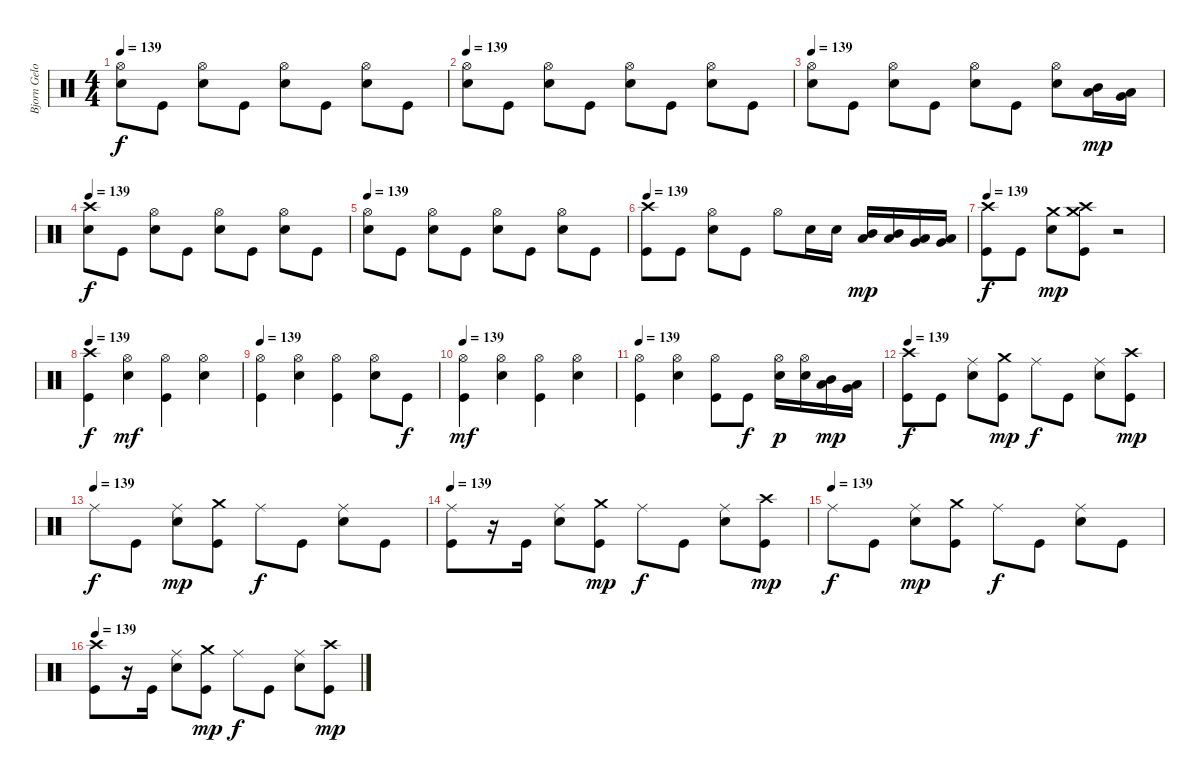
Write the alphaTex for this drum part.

\track ("Bjorn Gelotte-Drum" "Bjorn Gelo") {instrument percussion}
\staff {score}
\articulation defaults
\ts (4 4)
\tempo 139
\clef neutral
\ks c
("Electric Snare (hit)" "Hi-Hat (open)").8{dy f} "Kick (hit)".8 ("Electric Snare (hit)" "Hi-Hat (open)").8 "Kick (hit)".8 ("Electric Snare (hit)" "Hi-Hat (open)").8 "Kick (hit)".8 ("Electric Snare (hit)" "Hi-Hat (open)").8 "Kick (hit)".8 |
\tempo 139
("Electric Snare (hit)" "Hi-Hat (open)").8 "Kick (hit)".8 ("Electric Snare (hit)" "Hi-Hat (open)").8 "Kick (hit)".8 ("Electric Snare (hit)" "Hi-Hat (open)").8 "Kick (hit)".8 ("Electric Snare (hit)" "Hi-Hat (open)").8 "Kick (hit)".8 |
\tempo 139
("Electric Snare (hit)" "Hi-Hat (open)").8 "Kick (hit)".8 ("Electric Snare (hit)" "Hi-Hat (open)").8 "Kick (hit)".8 ("Electric Snare (hit)" "Hi-Hat (open)").8 "Kick (hit)".8 ("Electric Snare (hit)" "Hi-Hat (open)").8 ("Low Tom (hit)" "Mid Tom (hit)").16{dy mp} ("Very Low Tom (hit)" "Low Tom (hit)").16 |
\tempo 139
("Electric Snare (hit)" "Crash high (hit)").8{dy f} "Kick (hit)".8 ("Electric Snare (hit)" "Hi-Hat (open)").8 "Kick (hit)".8 ("Electric Snare (hit)" "Hi-Hat (open)").8 "Kick (hit)".8 ("Electric Snare (hit)" "Hi-Hat (open)").8 "Kick (hit)".8 |
\tempo 139
("Electric Snare (hit)" "Hi-Hat (open)").8 "Kick (hit)".8 ("Electric Snare (hit)" "Hi-Hat (open)").8 "Kick (hit)".8 ("Electric Snare (hit)" "Hi-Hat (open)").8 "Kick (hit)".8 ("Electric Snare (hit)" "Hi-Hat (open)").8 "Kick (hit)".8 |
\tempo 139
("Kick (hit)" "Crash high (hit)").8 "Kick (hit)".8 ("Electric Snare (hit)" "Hi-Hat (open)").8 "Kick (hit)".8 "Hi-Hat (open)".8 "Electric Snare (hit)".16 "Electric Snare (hit)".16 ("Low Tom (hit)" "Mid Tom (hit)").16{dy mp} ("Low Tom (hit)" "Mid Tom (hit)").16 ("Very Low Tom (hit)" "Low Tom (hit)").16 ("Very Low Tom (hit)" "Low Tom (hit)").16 |
\tempo 139
("Kick (hit)" "Crash high (hit)").8{dy f} "Kick (hit)".8 ("Electric Snare (hit)" "Crash medium (hit)").8{dy mp} ("Kick (hit)" "Crash high (hit)" "Crash medium (hit)").8 r.2 |
\tempo 139
("Kick (hit)" "Crash high (hit)").4{dy f} ("Electric Snare (hit)" "Hi-Hat (open)").4{dy mf} ("Kick (hit)" "Hi-Hat (open)").4 ("Electric Snare (hit)" "Hi-Hat (open)").4 |
\tempo 139
("Kick (hit)" "Hi-Hat (open)").4 ("Electric Snare (hit)" "Hi-Hat (open)").4 ("Kick (hit)" "Hi-Hat (open)").4 ("Electric Snare (hit)" "Hi-Hat (open)").8 "Kick (hit)".8{dy f} |
\tempo 139
("Kick (hit)" "Hi-Hat (open)").4{dy mf} ("Electric Snare (hit)" "Hi-Hat (open)").4 ("Kick (hit)" "Hi-Hat (open)").4 ("Electric Snare (hit)" "Hi-Hat (open)").4 |
\tempo 139
("Kick (hit)" "Hi-Hat (open)").4 ("Electric Snare (hit)" "Hi-Hat (open)").4 ("Kick (hit)" "Hi-Hat (open)").8 "Kick (hit)".8{dy f} ("Electric Snare (hit)" "Hi-Hat (open)").16{dy p} ("Electric Snare (hit)" "Hi-Hat (open)").16 ("Low Tom (hit)" "Mid Tom (hit)").16{dy mp} ("Very Low Tom (hit)" "Low Tom (hit)").16 |
\tempo 139
("Kick (hit)" "Crash high (hit)").8{dy f} "Kick (hit)".8 ("Electric Snare (hit)" "Ride (middle)").8 ("Kick (hit)" "Crash medium (hit)").8{dy mp} "Ride (middle)".8{dy f} "Kick (hit)".8 ("Electric Snare (hit)" "Ride (middle)").8 ("Kick (hit)" "Crash high (hit)").8{dy mp} |
\tempo (139)
"Ride (middle)".8{dy f} "Kick (hit)".8 ("Electric Snare (hit)" "Ride (middle)").8{dy mp} ("Kick (hit)" "Crash medium (hit)").8 "Ride (middle)".8{dy f} "Kick (hit)".8 ("Electric Snare (hit)" "Ride (middle)").8 "Kick (hit)".8 |
\tempo 139
("Kick (hit)" "Ride (middle)").8 r.16 "Kick (hit)".16 ("Electric Snare (hit)" "Ride (middle)").8 ("Kick (hit)" "Crash medium (hit)").8{dy mp} "Ride (middle)".8{dy f} "Kick (hit)".8 ("Electric Snare (hit)" "Ride (middle)").8 ("Kick (hit)" "Crash high (hit)").8{dy mp} |
\tempo (139)
"Ride (middle)".8{dy f} "Kick (hit)".8 ("Electric Snare (hit)" "Ride (middle)").8{dy mp} ("Kick (hit)" "Crash medium (hit)").8 "Ride (middle)".8{dy f} "Kick (hit)".8 ("Electric Snare (hit)" "Ride (middle)").8 "Kick (hit)".8 |
\tempo 139
("Kick (hit)" "Crash high (hit)").8 r.16 "Kick (hit)".16 ("Electric Snare (hit)" "Ride (middle)").8 ("Kick (hit)" "Crash medium (hit)").8{dy mp} "Ride (middle)".8{dy f} "Kick (hit)".8 ("Electric Snare (hit)" "Ride (middle)").8 ("Kick (hit)" "Crash high (hit)").8{dy mp}
